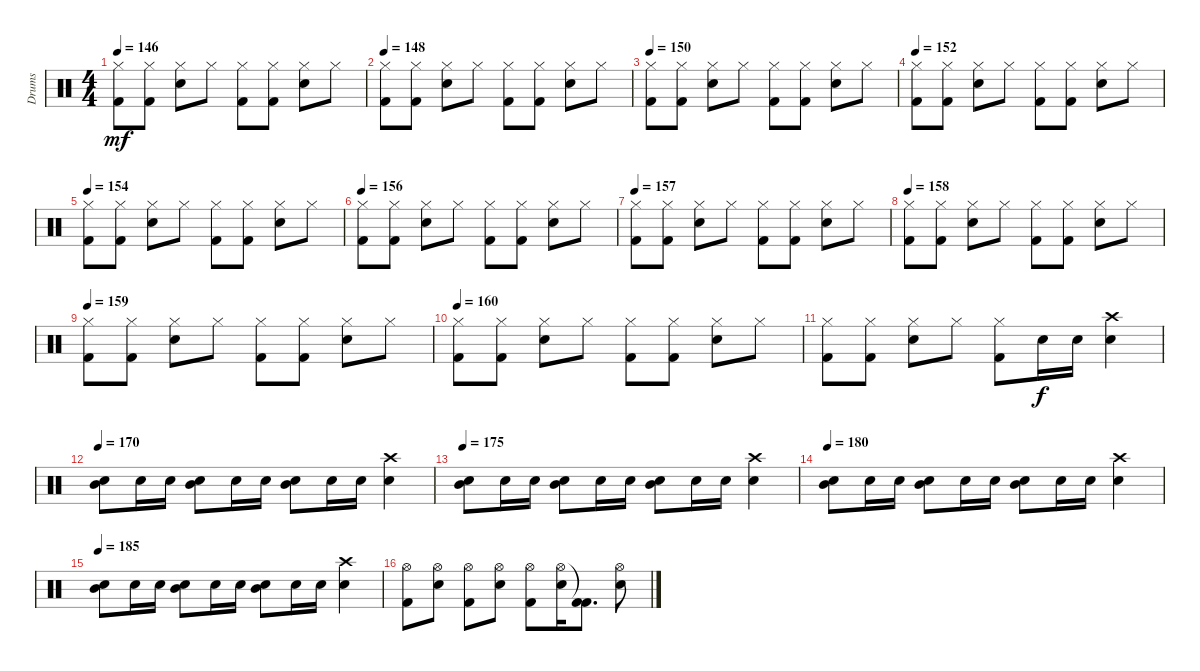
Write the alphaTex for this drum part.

\track ("Drums" "Drums") {instrument percussion}
\staff {score}
\articulation defaults
\ts (4 4)
\tempo 146
\clef neutral
\ks c
("Hi-Hat (closed)" "Kick (hit) 2").8{dy mf} ("Hi-Hat (closed)" "Kick (hit) 2").8 ("Hi-Hat (closed)" "Electric Snare (hit)").8 "Hi-Hat (closed)".8 ("Hi-Hat (closed)" "Kick (hit) 2").8 ("Hi-Hat (closed)" "Kick (hit) 2").8 ("Hi-Hat (closed)" "Electric Snare (hit)").8 "Hi-Hat (closed)".8 |
\tempo 148
("Hi-Hat (closed)" "Kick (hit) 2").8 ("Hi-Hat (closed)" "Kick (hit) 2").8 ("Hi-Hat (closed)" "Electric Snare (hit)").8 "Hi-Hat (closed)".8 ("Hi-Hat (closed)" "Kick (hit) 2").8 ("Hi-Hat (closed)" "Kick (hit) 2").8 ("Hi-Hat (closed)" "Electric Snare (hit)").8 "Hi-Hat (closed)".8 |
\tempo 150
("Hi-Hat (closed)" "Kick (hit) 2").8 ("Hi-Hat (closed)" "Kick (hit) 2").8 ("Hi-Hat (closed)" "Electric Snare (hit)").8 "Hi-Hat (closed)".8 ("Hi-Hat (closed)" "Kick (hit) 2").8 ("Hi-Hat (closed)" "Kick (hit) 2").8 ("Hi-Hat (closed)" "Electric Snare (hit)").8 "Hi-Hat (closed)".8 |
\tempo 152
("Hi-Hat (closed)" "Kick (hit) 2").8 ("Hi-Hat (closed)" "Kick (hit) 2").8 ("Hi-Hat (closed)" "Electric Snare (hit)").8 "Hi-Hat (closed)".8 ("Hi-Hat (closed)" "Kick (hit) 2").8 ("Hi-Hat (closed)" "Kick (hit) 2").8 ("Hi-Hat (closed)" "Electric Snare (hit)").8 "Hi-Hat (closed)".8 |
\tempo 154
("Hi-Hat (closed)" "Kick (hit) 2").8 ("Hi-Hat (closed)" "Kick (hit) 2").8 ("Hi-Hat (closed)" "Electric Snare (hit)").8 "Hi-Hat (closed)".8 ("Hi-Hat (closed)" "Kick (hit) 2").8 ("Hi-Hat (closed)" "Kick (hit) 2").8 ("Hi-Hat (closed)" "Electric Snare (hit)").8 "Hi-Hat (closed)".8 |
\tempo 156
("Hi-Hat (closed)" "Kick (hit) 2").8 ("Hi-Hat (closed)" "Kick (hit) 2").8 ("Hi-Hat (closed)" "Electric Snare (hit)").8 "Hi-Hat (closed)".8 ("Hi-Hat (closed)" "Kick (hit) 2").8 ("Hi-Hat (closed)" "Kick (hit) 2").8 ("Hi-Hat (closed)" "Electric Snare (hit)").8 "Hi-Hat (closed)".8 |
\tempo 157
("Hi-Hat (closed)" "Kick (hit) 2").8 ("Hi-Hat (closed)" "Kick (hit) 2").8 ("Hi-Hat (closed)" "Electric Snare (hit)").8 "Hi-Hat (closed)".8 ("Hi-Hat (closed)" "Kick (hit) 2").8 ("Hi-Hat (closed)" "Kick (hit) 2").8 ("Hi-Hat (closed)" "Electric Snare (hit)").8 "Hi-Hat (closed)".8 |
\tempo 158
("Hi-Hat (closed)" "Kick (hit) 2").8 ("Hi-Hat (closed)" "Kick (hit) 2").8 ("Hi-Hat (closed)" "Electric Snare (hit)").8 "Hi-Hat (closed)".8 ("Hi-Hat (closed)" "Kick (hit) 2").8 ("Hi-Hat (closed)" "Kick (hit) 2").8 ("Hi-Hat (closed)" "Electric Snare (hit)").8 "Hi-Hat (closed)".8 |
\tempo 159
("Hi-Hat (closed)" "Kick (hit) 2").8 ("Hi-Hat (closed)" "Kick (hit) 2").8 ("Hi-Hat (closed)" "Electric Snare (hit)").8 "Hi-Hat (closed)".8 ("Hi-Hat (closed)" "Kick (hit) 2").8 ("Hi-Hat (closed)" "Kick (hit) 2").8 ("Hi-Hat (closed)" "Electric Snare (hit)").8 "Hi-Hat (closed)".8 |
\tempo 160
("Hi-Hat (closed)" "Kick (hit) 2").8 ("Hi-Hat (closed)" "Kick (hit) 2").8 ("Hi-Hat (closed)" "Electric Snare (hit)").8 "Hi-Hat (closed)".8 ("Hi-Hat (closed)" "Kick (hit) 2").8 ("Hi-Hat (closed)" "Kick (hit) 2").8 ("Hi-Hat (closed)" "Electric Snare (hit)").8 "Hi-Hat (closed)".8 |
("Hi-Hat (closed)" "Kick (hit) 2").8 ("Hi-Hat (closed)" "Kick (hit) 2").8 ("Hi-Hat (closed)" "Electric Snare (hit)").8 "Hi-Hat (closed)".8 ("Hi-Hat (closed)" "Kick (hit) 2").8 "Electric Snare (hit)".16{dy f} "Electric Snare (hit)".16 ("Crash high (hit)" "Electric Snare (hit)").4 |
\tempo 170
("Mid Tom (hit)" "Electric Snare (hit)").8 "Electric Snare (hit)".16 "Electric Snare (hit)".16 ("Mid Tom (hit)" "Electric Snare (hit)").8 "Electric Snare (hit)".16 "Electric Snare (hit)".16 ("Mid Tom (hit)" "Electric Snare (hit)").8 "Electric Snare (hit)".16 "Electric Snare (hit)".16 ("Crash high (hit)" "Electric Snare (hit)").4 |
\tempo 175
("Mid Tom (hit)" "Electric Snare (hit)").8 "Electric Snare (hit)".16 "Electric Snare (hit)".16 ("Mid Tom (hit)" "Electric Snare (hit)").8 "Electric Snare (hit)".16 "Electric Snare (hit)".16 ("Mid Tom (hit)" "Electric Snare (hit)").8 "Electric Snare (hit)".16 "Electric Snare (hit)".16 ("Crash high (hit)" "Electric Snare (hit)").4 |
\tempo 180
("Mid Tom (hit)" "Electric Snare (hit)").8 "Electric Snare (hit)".16 "Electric Snare (hit)".16 ("Mid Tom (hit)" "Electric Snare (hit)").8 "Electric Snare (hit)".16 "Electric Snare (hit)".16 ("Mid Tom (hit)" "Electric Snare (hit)").8 "Electric Snare (hit)".16 "Electric Snare (hit)".16 ("Crash high (hit)" "Electric Snare (hit)").4 |
\tempo 185
("Mid Tom (hit)" "Electric Snare (hit)").8 "Electric Snare (hit)".16 "Electric Snare (hit)".16 ("Mid Tom (hit)" "Electric Snare (hit)").8 "Electric Snare (hit)".16 "Electric Snare (hit)".16 ("Mid Tom (hit)" "Electric Snare (hit)").8 "Electric Snare (hit)".16 "Electric Snare (hit)".16 ("Crash high (hit)" "Electric Snare (hit)").4 |
("Hi-Hat (open)" "Kick (hit) 2").8 ("Hi-Hat (open)" "Electric Snare (hit)").8 ("Hi-Hat (open)" "Kick (hit) 2").8 ("Hi-Hat (open)" "Electric Snare (hit)").8 ("Hi-Hat (open)" "Kick (hit) 2").8 ("Hi-Hat (open)" "Electric Snare (hit)").16 ("Kick (hit) 2"{t} "Kick (hit) 2").8{d} ("Hi-Hat (open)" "Electric Snare (hit)").8
